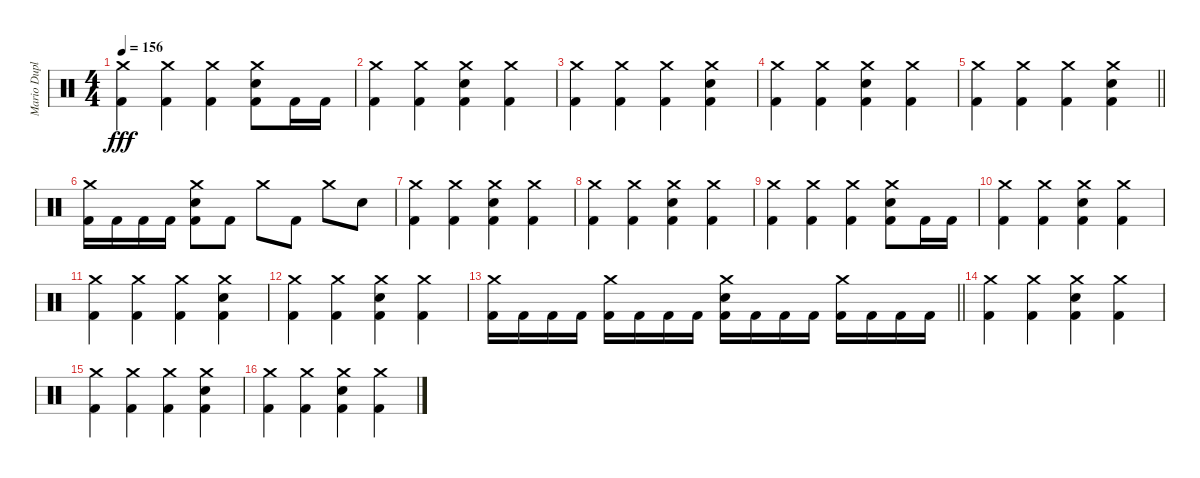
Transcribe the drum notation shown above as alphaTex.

\track ("Mario Duplantier" "Mario Dupl") {instrument percussion}
\staff {score}
\articulation defaults
\ts (4 4)
\tempo 156
\clef neutral
\ks c
("Crash medium (hit)" "Kick (hit) 2").4{dy fff} ("Crash medium (hit)" "Kick (hit) 2").4 ("Crash medium (hit)" "Kick (hit) 2").4 ("Crash medium (hit)" "Electric Snare (hit)" "Kick (hit) 2").8 "Kick (hit) 2".16 "Kick (hit) 2".16 |
("Crash medium (hit)" "Kick (hit) 2").4 ("Crash medium (hit)" "Kick (hit) 2").4 ("Crash medium (hit)" "Electric Snare (hit)" "Kick (hit) 2").4 ("Crash medium (hit)" "Kick (hit) 2").4 |
("Crash medium (hit)" "Kick (hit) 2").4 ("Crash medium (hit)" "Kick (hit) 2").4 ("Crash medium (hit)" "Kick (hit) 2").4 ("Crash medium (hit)" "Electric Snare (hit)" "Kick (hit) 2").4 |
("Crash medium (hit)" "Kick (hit) 2").4 ("Crash medium (hit)" "Kick (hit) 2").4 ("Crash medium (hit)" "Electric Snare (hit)" "Kick (hit) 2").4 ("Crash medium (hit)" "Kick (hit) 2").4 |
\barLineRight lightlight
("Crash medium (hit)" "Kick (hit) 2").4 ("Crash medium (hit)" "Kick (hit) 2").4 ("Crash medium (hit)" "Kick (hit) 2").4 ("Crash medium (hit)" "Electric Snare (hit)" "Kick (hit) 2").4 |
\section ("" "")
("Crash medium (hit)" "Kick (hit) 2").16 "Kick (hit) 2".16 "Kick (hit) 2".16 "Kick (hit) 2".16 ("Crash medium (hit)" "Electric Snare (hit)" "Kick (hit) 2").8 "Kick (hit) 2".8 "Crash medium (hit)".8 "Kick (hit) 2".8 "Crash medium (hit)".8 "Electric Snare (hit)".8 |
("Crash medium (hit)" "Kick (hit) 2").4 ("Crash medium (hit)" "Kick (hit) 2").4 ("Crash medium (hit)" "Electric Snare (hit)" "Kick (hit) 2").4 ("Crash medium (hit)" "Kick (hit) 2").4 |
("Crash medium (hit)" "Kick (hit) 2").4 ("Crash medium (hit)" "Kick (hit) 2").4 ("Crash medium (hit)" "Electric Snare (hit)" "Kick (hit) 2").4 ("Crash medium (hit)" "Kick (hit) 2").4 |
("Crash medium (hit)" "Kick (hit) 2").4 ("Crash medium (hit)" "Kick (hit) 2").4 ("Crash medium (hit)" "Kick (hit) 2").4 ("Crash medium (hit)" "Electric Snare (hit)" "Kick (hit) 2").8 "Kick (hit) 2".16 "Kick (hit) 2".16 |
("Crash medium (hit)" "Kick (hit) 2").4 ("Crash medium (hit)" "Kick (hit) 2").4 ("Crash medium (hit)" "Electric Snare (hit)" "Kick (hit) 2").4 ("Crash medium (hit)" "Kick (hit) 2").4 |
("Crash medium (hit)" "Kick (hit) 2").4 ("Crash medium (hit)" "Kick (hit) 2").4 ("Crash medium (hit)" "Kick (hit) 2").4 ("Crash medium (hit)" "Electric Snare (hit)" "Kick (hit) 2").4 |
("Crash medium (hit)" "Kick (hit) 2").4 ("Crash medium (hit)" "Kick (hit) 2").4 ("Crash medium (hit)" "Electric Snare (hit)" "Kick (hit) 2").4 ("Crash medium (hit)" "Kick (hit) 2").4 |
\barLineRight lightlight
("Crash medium (hit)" "Kick (hit) 2").16 "Kick (hit) 2".16 "Kick (hit) 2".16 "Kick (hit) 2".16 ("Crash medium (hit)" "Kick (hit) 2").16 "Kick (hit) 2".16 "Kick (hit) 2".16 "Kick (hit) 2".16 ("Crash medium (hit)" "Electric Snare (hit)" "Kick (hit) 2").16 "Kick (hit) 2".16 "Kick (hit) 2".16 "Kick (hit) 2".16 ("Crash medium (hit)" "Kick (hit) 2").16 "Kick (hit) 2".16 "Kick (hit) 2".16 "Kick (hit) 2".16 |
\section ("" "")
("Crash medium (hit)" "Kick (hit) 2").4 ("Crash medium (hit)" "Kick (hit) 2").4 ("Crash medium (hit)" "Electric Snare (hit)" "Kick (hit) 2").4 ("Crash medium (hit)" "Kick (hit) 2").4 |
("Crash medium (hit)" "Kick (hit) 2").4 ("Crash medium (hit)" "Kick (hit) 2").4 ("Crash medium (hit)" "Kick (hit) 2").4 ("Crash medium (hit)" "Electric Snare (hit)" "Kick (hit) 2").4 |
("Crash medium (hit)" "Kick (hit) 2").4 ("Crash medium (hit)" "Kick (hit) 2").4 ("Crash medium (hit)" "Electric Snare (hit)" "Kick (hit) 2").4 ("Crash medium (hit)" "Kick (hit) 2").4
